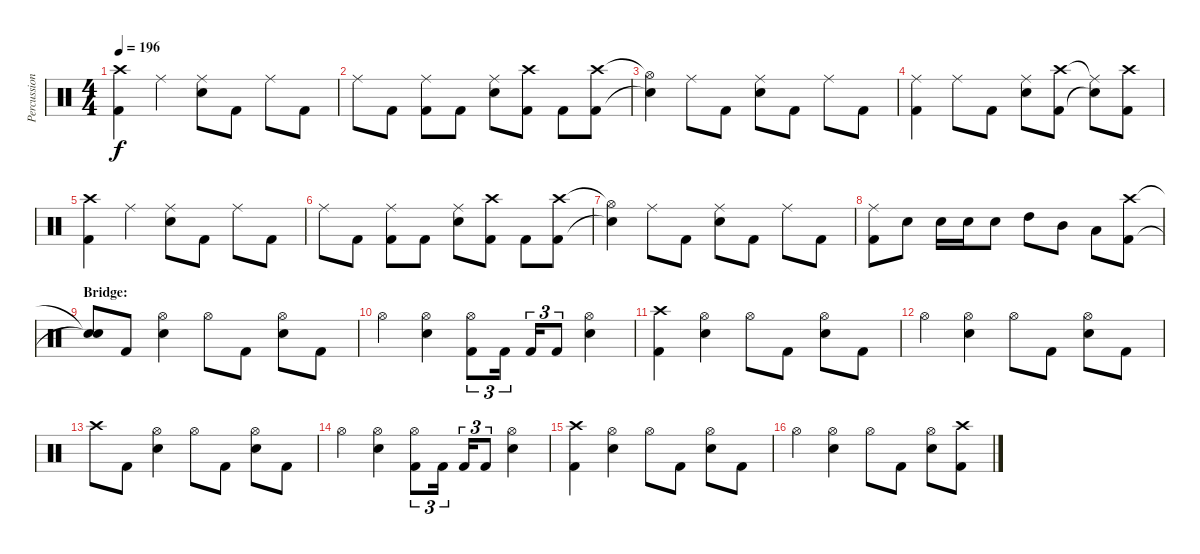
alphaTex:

\track ("Percussion" "Percussion") {instrument percussion}
\staff {score}
\articulation defaults
\ts (4 4)
\tempo 196
\clef neutral
\ks c
("Crash high (hit)" "Kick (hit) 2").4{dy f} "Ride (middle)".4 ("Ride (middle)" "Snare (hit) 2").8 "Kick (hit) 2".8 "Ride (middle)".8 "Kick (hit) 2".8 |
"Ride (middle)".8 "Kick (hit) 2".8 ("Ride (middle)" "Kick (hit) 2").8 "Kick (hit) 2".8 ("Ride (middle)" "Snare (hit) 2").8 ("Crash high (hit)" "Kick (hit) 2").8 "Kick (hit) 2".8 ("Crash high (hit)" "Kick (hit) 2").8 |
("Hi-Hat (open)"{t} "Snare (hit)"{t}).4 "Ride (middle)".8 "Kick (hit) 2".8 ("Ride (middle)" "Snare (hit) 2").8 "Kick (hit) 2".8 "Ride (middle)".8 "Kick (hit) 2".8 |
("Ride (middle)" "Kick (hit) 2").4 "Ride (middle)".8 "Kick (hit) 2".8 ("Ride (middle)" "Snare (hit) 2").8 ("Crash high (hit)" "Kick (hit) 2").8 ("Ride (middle)"{t} "Snare (hit) 2"{t}).8 ("Crash high (hit)" "Kick (hit) 2").8 |
("Crash high (hit)" "Kick (hit) 2").4 "Ride (middle)".4 ("Ride (middle)" "Snare (hit) 2").8 "Kick (hit) 2".8 "Ride (middle)".8 "Kick (hit) 2".8 |
"Ride (middle)".8 "Kick (hit) 2".8 ("Ride (middle)" "Kick (hit) 2").8 "Kick (hit) 2".8 ("Ride (middle)" "Snare (hit) 2").8 ("Crash high (hit)" "Kick (hit) 2").8 "Kick (hit) 2".8 ("Crash high (hit)" "Kick (hit) 2").8 |
("Hi-Hat (open)"{t} "Snare (hit)"{t}).4 "Ride (middle)".8 "Kick (hit) 2".8 ("Ride (middle)" "Snare (hit) 2").8 "Kick (hit) 2".8 "Ride (middle)".8 "Kick (hit) 2".8 |
("Ride (middle)" "Kick (hit) 2").8 "Snare (hit) 2".8 "Snare (hit) 2".16 "Snare (hit) 2".16 "Snare (hit) 2".8 "High Tom (hit)".8 "Mid Tom (hit)".8 "Low Tom (hit)".8 ("Crash high (hit)" "Kick (hit) 2").8 |
\section ("" "Bridge:")
("Snare (hit)"{t} "Snare (hit)"{t}).8 "Kick (hit) 2".8 ("Hi-Hat (open)" "Snare (hit) 2").4 "Hi-Hat (open)".8 "Kick (hit) 2".8 ("Hi-Hat (open)" "Snare (hit) 2").8 "Kick (hit) 2".8 |
"Hi-Hat (open)".4 ("Hi-Hat (open)" "Snare (hit) 2").4 ("Hi-Hat (open)" "Kick (hit) 2").8{tu (3 2)} "Kick (hit) 2".16{tu (3 2)} "Kick (hit) 2".16{tu (3 2)} "Kick (hit) 2".8{tu (3 2)} ("Hi-Hat (open)" "Snare (hit) 2").4 |
("Crash high (hit)" "Kick (hit) 2").4 ("Hi-Hat (open)" "Snare (hit) 2").4 "Hi-Hat (open)".8 "Kick (hit) 2".8 ("Hi-Hat (open)" "Snare (hit) 2").8 "Kick (hit) 2".8 |
"Hi-Hat (open)".4 ("Hi-Hat (open)" "Snare (hit) 2").4 "Hi-Hat (open)".8 "Kick (hit) 2".8 ("Hi-Hat (open)" "Snare (hit) 2").8 "Kick (hit) 2".8 |
"Crash high (hit)".8 "Kick (hit) 2".8 ("Hi-Hat (open)" "Snare (hit) 2").4 "Hi-Hat (open)".8 "Kick (hit) 2".8 ("Hi-Hat (open)" "Snare (hit) 2").8 "Kick (hit) 2".8 |
"Hi-Hat (open)".4 ("Hi-Hat (open)" "Snare (hit) 2").4 ("Hi-Hat (open)" "Kick (hit) 2").8{tu (3 2)} "Kick (hit) 2".16{tu (3 2)} "Kick (hit) 2".16{tu (3 2)} "Kick (hit) 2".8{tu (3 2)} ("Hi-Hat (open)" "Snare (hit) 2").4 |
("Crash high (hit)" "Kick (hit) 2").4 ("Hi-Hat (open)" "Snare (hit) 2").4 "Hi-Hat (open)".8 "Kick (hit) 2".8 ("Hi-Hat (open)" "Snare (hit) 2").8 "Kick (hit) 2".8 |
"Hi-Hat (open)".4 ("Hi-Hat (open)" "Snare (hit) 2").4 "Hi-Hat (open)".8 "Kick (hit) 2".8 ("Hi-Hat (open)" "Snare (hit) 2").8 ("Crash high (hit)" "Kick (hit) 2").8
